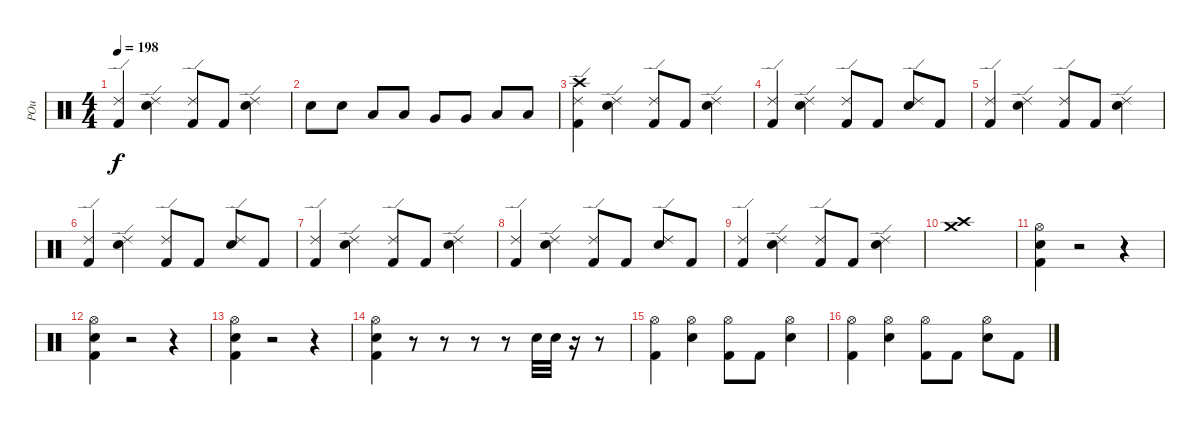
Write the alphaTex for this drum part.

\track ("POu" "POu") {instrument percussion}
\staff {score}
\articulation defaults
\ts (4 4)
\tempo 198
\clef neutral
\ks c
("Kick (hit) 2" "Ride (edge) 2").4{dy f} ("Electric Snare (hit)" "Ride (edge) 2").4 ("Kick (hit) 2" "Ride (edge) 2").8 "Kick (hit) 2".8 ("Electric Snare (hit)" "Ride (edge) 2").4 |
"Electric Snare (hit)".8 "Electric Snare (hit)".8 "Low Tom (hit)".8 "Low Tom (hit)".8 "Very Low Tom (hit)".8 "Very Low Tom (hit)".8 "Low Floor Tom (hit)".8 "Low Floor Tom (hit)".8 |
("Crash high (hit)" "Kick (hit) 2" "Ride (edge) 2").4 ("Electric Snare (hit)" "Ride (edge) 2").4 ("Kick (hit) 2" "Ride (edge) 2").8 "Kick (hit) 2".8 ("Electric Snare (hit)" "Ride (edge) 2").4 |
("Kick (hit) 2" "Ride (edge) 2").4 ("Electric Snare (hit)" "Ride (edge) 2").4 ("Kick (hit) 2" "Ride (edge) 2").8 "Kick (hit) 2".8 ("Electric Snare (hit)" "Ride (edge) 2").8 "Kick (hit) 2".8 |
("Kick (hit) 2" "Ride (edge) 2").4 ("Electric Snare (hit)" "Ride (edge) 2").4 ("Kick (hit) 2" "Ride (edge) 2").8 "Kick (hit) 2".8 ("Electric Snare (hit)" "Ride (edge) 2").4 |
("Kick (hit) 2" "Ride (edge) 2").4 ("Electric Snare (hit)" "Ride (edge) 2").4 ("Kick (hit) 2" "Ride (edge) 2").8 "Kick (hit) 2".8 ("Electric Snare (hit)" "Ride (edge) 2").8 "Kick (hit) 2".8 |
("Kick (hit) 2" "Ride (edge) 2").4 ("Electric Snare (hit)" "Ride (edge) 2").4 ("Kick (hit) 2" "Ride (edge) 2").8 "Kick (hit) 2".8 ("Electric Snare (hit)" "Ride (edge) 2").4 |
("Kick (hit) 2" "Ride (edge) 2").4 ("Electric Snare (hit)" "Ride (edge) 2").4 ("Kick (hit) 2" "Ride (edge) 2").8 "Kick (hit) 2".8 ("Electric Snare (hit)" "Ride (edge) 2").8 "Kick (hit) 2".8 |
("Kick (hit) 2" "Ride (edge) 2").4 ("Electric Snare (hit)" "Ride (edge) 2").4 ("Kick (hit) 2" "Ride (edge) 2").8 "Kick (hit) 2".8 ("Electric Snare (hit)" "Ride (edge) 2").4 |
("Crash medium (hit)" "Crash high (hit)").1 |
("Electric Snare (hit)" "Hi-Hat (open)" "Kick (hit) 2").4 r.2 r.4 |
("Electric Snare (hit)" "Hi-Hat (open)" "Kick (hit) 2").4 r.2 r.4 |
("Electric Snare (hit)" "Hi-Hat (open)" "Kick (hit) 2").4 r.2 r.4 |
("Electric Snare (hit)" "Hi-Hat (open)" "Kick (hit) 2").4 r.8 r.8 r.8 r.8 "Electric Snare (hit)".32 "Electric Snare (hit)".32 r.16 r.8 |
("Kick (hit) 2" "Hi-Hat (open)").4 ("Electric Snare (hit)" "Hi-Hat (open)").4 ("Kick (hit) 2" "Hi-Hat (open)").8 "Kick (hit) 2".8 ("Electric Snare (hit)" "Hi-Hat (open)").4 |
("Kick (hit) 2" "Hi-Hat (open)").4 ("Electric Snare (hit)" "Hi-Hat (open)").4 ("Kick (hit) 2" "Hi-Hat (open)").8 "Kick (hit) 2".8 ("Electric Snare (hit)" "Hi-Hat (open)").8 "Kick (hit) 2".8
